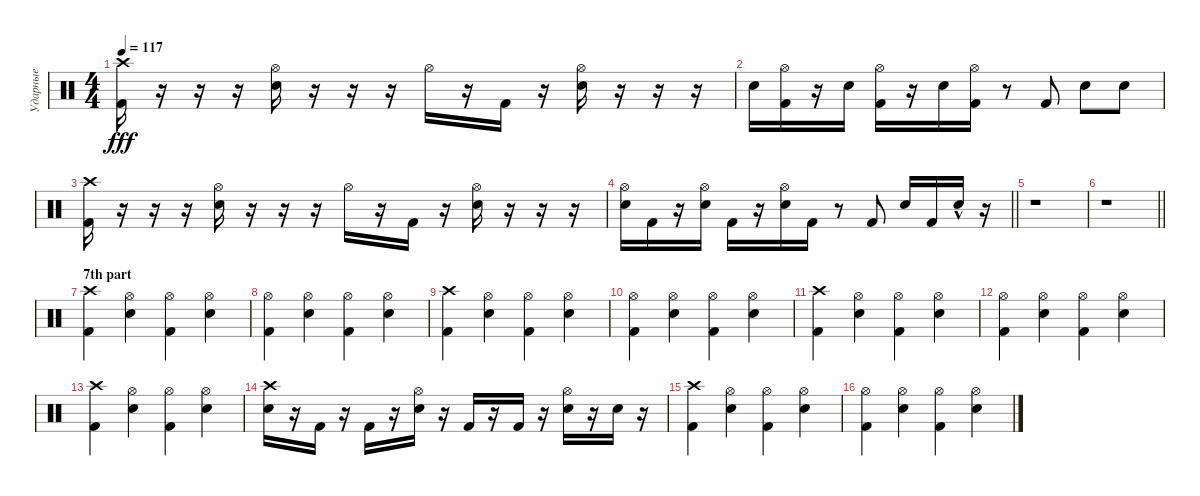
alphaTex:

\track ("Ударные" "Ударные") {instrument percussion}
\staff {score}
\articulation defaults
\ts (4 4)
\tempo 117
\clef neutral
\ks c
("Crash high (hit)" "Kick (hit) 2").16{dy fff} r.16 r.16 r.16 ("Hi-Hat (open)" "Snare (hit) 2").16 r.16 r.16 r.16 "Hi-Hat (open)".16 r.16 "Kick (hit) 2".16 r.16 ("Hi-Hat (open)" "Snare (hit) 2").16 r.16 r.16 r.16 |
"Snare (hit) 2".16 ("Kick (hit) 2" "Hi-Hat (open)").16 r.16 "Snare (hit) 2".16 ("Kick (hit) 2" "Hi-Hat (open)").16 r.16 "Snare (hit) 2".16 ("Kick (hit) 2" "Hi-Hat (open)").16 r.8 "Kick (hit) 2".8 "Snare (hit) 2".8 "Snare (hit) 2".8 |
("Crash high (hit)" "Kick (hit) 2").16 r.16 r.16 r.16 ("Hi-Hat (open)" "Snare (hit) 2").16 r.16 r.16 r.16 "Hi-Hat (open)".16 r.16 "Kick (hit) 2".16 r.16 ("Hi-Hat (open)" "Snare (hit) 2").16 r.16 r.16 r.16 |
\barLineRight lightlight
("Snare (hit) 2" "Hi-Hat (open)").16 "Kick (hit) 2".16 r.16 ("Snare (hit) 2" "Hi-Hat (open)").16 "Kick (hit) 2".16 r.16 ("Snare (hit) 2" "Hi-Hat (open)").16 "Kick (hit) 2".16 r.8 "Kick (hit) 2".8 "Snare (hit) 2".16 "Kick (hit) 2".16 "Snare (hit) 2"{hac}.16 r.16 |
r.1 |
\barLineRight lightlight
r.1 |
\section ("" "7th part")
("Crash high (hit)" "Kick (hit) 2").4 ("Hi-Hat (open)" "Snare (hit) 2").4 ("Hi-Hat (open)" "Kick (hit) 2").4 ("Hi-Hat (open)" "Snare (hit) 2").4 |
("Hi-Hat (open)" "Kick (hit) 2").4 ("Hi-Hat (open)" "Snare (hit) 2").4 ("Hi-Hat (open)" "Kick (hit) 2").4 ("Hi-Hat (open)" "Snare (hit) 2").4 |
("Crash high (hit)" "Kick (hit) 2").4 ("Hi-Hat (open)" "Snare (hit) 2").4 ("Hi-Hat (open)" "Kick (hit) 2").4 ("Hi-Hat (open)" "Snare (hit) 2").4 |
("Hi-Hat (open)" "Kick (hit) 2").4 ("Hi-Hat (open)" "Snare (hit) 2").4 ("Hi-Hat (open)" "Kick (hit) 2").4 ("Hi-Hat (open)" "Snare (hit) 2").4 |
("Crash high (hit)" "Kick (hit) 2").4 ("Hi-Hat (open)" "Snare (hit) 2").4 ("Hi-Hat (open)" "Kick (hit) 2").4 ("Hi-Hat (open)" "Snare (hit) 2").4 |
("Hi-Hat (open)" "Kick (hit) 2").4 ("Hi-Hat (open)" "Snare (hit) 2").4 ("Hi-Hat (open)" "Kick (hit) 2").4 ("Hi-Hat (open)" "Snare (hit) 2").4 |
("Crash high (hit)" "Kick (hit) 2").4 ("Hi-Hat (open)" "Snare (hit) 2").4 ("Hi-Hat (open)" "Kick (hit) 2").4 ("Hi-Hat (open)" "Snare (hit) 2").4 |
("Snare (hit) 2" "Crash high (hit)").16 r.16 "Kick (hit) 2".16 r.16 "Kick (hit) 2".16 r.16 ("Snare (hit) 2" "Hi-Hat (open)").16 r.16 "Kick (hit) 2".16 r.16 "Kick (hit) 2".16 r.16 ("Snare (hit) 2" "Hi-Hat (open)").16 r.16 "Snare (hit) 2".16 r.16 |
("Crash high (hit)" "Kick (hit) 2").4 ("Hi-Hat (open)" "Snare (hit) 2").4 ("Hi-Hat (open)" "Kick (hit) 2").4 ("Hi-Hat (open)" "Snare (hit) 2").4 |
("Hi-Hat (open)" "Kick (hit) 2").4 ("Hi-Hat (open)" "Snare (hit) 2").4 ("Hi-Hat (open)" "Kick (hit) 2").4 ("Hi-Hat (open)" "Snare (hit) 2").4
